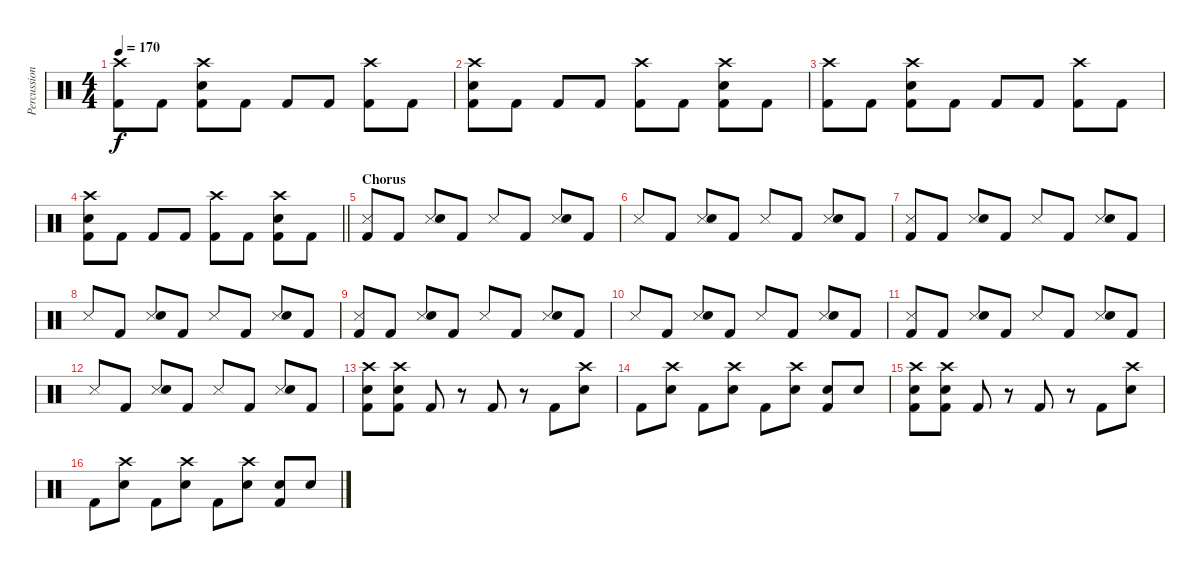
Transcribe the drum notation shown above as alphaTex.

\track ("Percussion" "Percussion") {instrument percussion}
\staff {score}
\articulation defaults
\ts (4 4)
\tempo 170
\clef neutral
\ks c
("Crash high (hit)" "Kick (hit) 2").8{dy f} "Kick (hit) 2".8 ("Crash high (hit)" "Electric Snare (hit)" "Kick (hit) 2").8 "Kick (hit) 2".8 "Kick (hit) 2".8 "Kick (hit) 2".8 ("Crash high (hit)" "Kick (hit) 2").8 "Kick (hit) 2".8 |
("Crash high (hit)" "Electric Snare (hit)" "Kick (hit) 2").8 "Kick (hit) 2".8 "Kick (hit) 2".8 "Kick (hit) 2".8 ("Crash high (hit)" "Kick (hit) 2").8 "Kick (hit) 2".8 ("Crash high (hit)" "Electric Snare (hit)" "Kick (hit) 2").8 "Kick (hit) 2".8 |
("Crash high (hit)" "Kick (hit) 2").8 "Kick (hit) 2".8 ("Crash high (hit)" "Electric Snare (hit)" "Kick (hit) 2").8 "Kick (hit) 2".8 "Kick (hit) 2".8 "Kick (hit) 2".8 ("Crash high (hit)" "Kick (hit) 2").8 "Kick (hit) 2".8 |
\barLineRight lightlight
("Crash high (hit)" "Electric Snare (hit)" "Kick (hit) 2").8 "Kick (hit) 2".8 "Kick (hit) 2".8 "Kick (hit) 2".8 ("Crash high (hit)" "Kick (hit) 2").8 "Kick (hit) 2".8 ("Crash high (hit)" "Electric Snare (hit)" "Kick (hit) 2").8 "Kick (hit) 2".8 |
\section ("" "Chorus")
("Snare (side stick) 3" "Kick (hit) 2").8 "Kick (hit) 2".8 ("Snare (side stick) 3" "Electric Snare (hit)").8 "Kick (hit) 2".8 "Snare (side stick) 3".8 "Kick (hit) 2".8 ("Snare (side stick) 3" "Electric Snare (hit)").8 "Kick (hit) 2".8 |
"Snare (side stick) 3".8 "Kick (hit) 2".8 ("Snare (side stick) 3" "Electric Snare (hit)").8 "Kick (hit) 2".8 "Snare (side stick) 3".8 "Kick (hit) 2".8 ("Snare (side stick) 3" "Electric Snare (hit)").8 "Kick (hit) 2".8 |
("Snare (side stick) 3" "Kick (hit) 2").8 "Kick (hit) 2".8 ("Snare (side stick) 3" "Electric Snare (hit)").8 "Kick (hit) 2".8 "Snare (side stick) 3".8 "Kick (hit) 2".8 ("Snare (side stick) 3" "Electric Snare (hit)").8 "Kick (hit) 2".8 |
"Snare (side stick) 3".8 "Kick (hit) 2".8 ("Snare (side stick) 3" "Electric Snare (hit)").8 "Kick (hit) 2".8 "Snare (side stick) 3".8 "Kick (hit) 2".8 ("Snare (side stick) 3" "Electric Snare (hit)").8 "Kick (hit) 2".8 |
("Snare (side stick) 3" "Kick (hit) 2").8 "Kick (hit) 2".8 ("Snare (side stick) 3" "Electric Snare (hit)").8 "Kick (hit) 2".8 "Snare (side stick) 3".8 "Kick (hit) 2".8 ("Snare (side stick) 3" "Electric Snare (hit)").8 "Kick (hit) 2".8 |
"Snare (side stick) 3".8 "Kick (hit) 2".8 ("Snare (side stick) 3" "Electric Snare (hit)").8 "Kick (hit) 2".8 "Snare (side stick) 3".8 "Kick (hit) 2".8 ("Snare (side stick) 3" "Electric Snare (hit)").8 "Kick (hit) 2".8 |
("Snare (side stick) 3" "Kick (hit) 2").8 "Kick (hit) 2".8 ("Snare (side stick) 3" "Electric Snare (hit)").8 "Kick (hit) 2".8 "Snare (side stick) 3".8 "Kick (hit) 2".8 ("Snare (side stick) 3" "Electric Snare (hit)").8 "Kick (hit) 2".8 |
"Snare (side stick) 3".8 "Kick (hit) 2".8 ("Snare (side stick) 3" "Electric Snare (hit)").8 "Kick (hit) 2".8 "Snare (side stick) 3".8 "Kick (hit) 2".8 ("Snare (side stick) 3" "Electric Snare (hit)").8 "Kick (hit) 2".8 |
("Crash high (hit)" "Electric Snare (hit)" "Kick (hit) 2").8 ("Crash high (hit)" "Electric Snare (hit)" "Kick (hit) 2").8 "Kick (hit) 2".8 r.8 "Kick (hit) 2".8 r.8 "Kick (hit) 2".8 ("Crash high (hit)" "Electric Snare (hit)").8 |
"Kick (hit) 2".8 ("Crash high (hit)" "Electric Snare (hit)").8 "Kick (hit) 2".8 ("Crash high (hit)" "Electric Snare (hit)").8 "Kick (hit) 2".8 ("Crash high (hit)" "Electric Snare (hit)").8 ("Electric Snare (hit)" "Kick (hit) 2").8 "Electric Snare (hit)".8 |
("Crash high (hit)" "Electric Snare (hit)" "Kick (hit) 2").8 ("Crash high (hit)" "Electric Snare (hit)" "Kick (hit) 2").8 "Kick (hit) 2".8 r.8 "Kick (hit) 2".8 r.8 "Kick (hit) 2".8 ("Crash high (hit)" "Electric Snare (hit)").8 |
"Kick (hit) 2".8 ("Crash high (hit)" "Electric Snare (hit)").8 "Kick (hit) 2".8 ("Crash high (hit)" "Electric Snare (hit)").8 "Kick (hit) 2".8 ("Crash high (hit)" "Electric Snare (hit)").8 ("Electric Snare (hit)" "Kick (hit) 2").8 "Electric Snare (hit)".8
